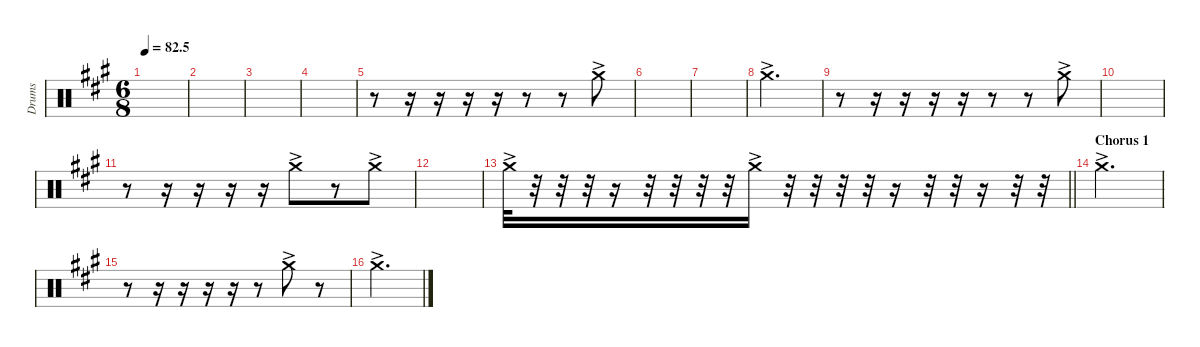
\defaultSystemsLayout 4
\hideDynamics
\bracketExtendMode nobrackets
\otherSystemsTrackNameOrientation horizontal
\track ("Right crash" "Drums") {instrument percussion}
\staff {score}
\articulation defaults
\ts (6 8)
\tempo
82.5
\accidentals auto
\clef neutral
\ottava regular
\simile none
\scale
0.333333
\ks a
|
\scale
0.333333 |
\scale
0.333333 |
\scale
0.333333 |
\scale
0.333333 r.8 r.16 r.16 r.16 r.16 r.8 r.8 "Crash medium (hit)"{ac acc forcenatural}.8 |
\scale
0.333333 |
\scale
0.333333 |
\scale
0.333333 "Crash medium (hit)"{ac acc forcenatural}.2{d} |
\scale
0.333333 r.8 r.16 r.16 r.16 r.16 r.8 r.8 "Crash medium (hit)"{ac acc forcenatural}.8 |
\scale
0.333333 |
\scale
0.333333 r.8 r.16 r.16 r.16 r.16 "Crash medium (hit)"{ac acc forcenatural}.8 r.8 "Crash medium (hit)"{ac acc forcenatural}.8 |
\scale
0.333333 |
\scale
0.333333
\barLineRight lightlight "Crash medium (hit)"{ac acc forcenatural}.32
r.32 r.32 r.32 r.16 r.32 r.32 r.32 r.32 "Crash medium (hit)"{ac acc forcenatural}.16 r.32 r.32 r.32 r.32 r.16 r.32 r.32 r.16 r.32 r.32 |
\section ("" "Chorus 1")
\scale
0.333333 "Crash medium (hit)"{ac acc forcenatural}.2{d} |
\scale
0.333333 r.8 r.16 r.16 r.16 r.16 r.8 "Crash medium (hit)"{ac acc forcenatural}.8 r.8 |
\scale
0.333333 "Crash medium (hit)"{ac acc forcenatural}.2{d}
